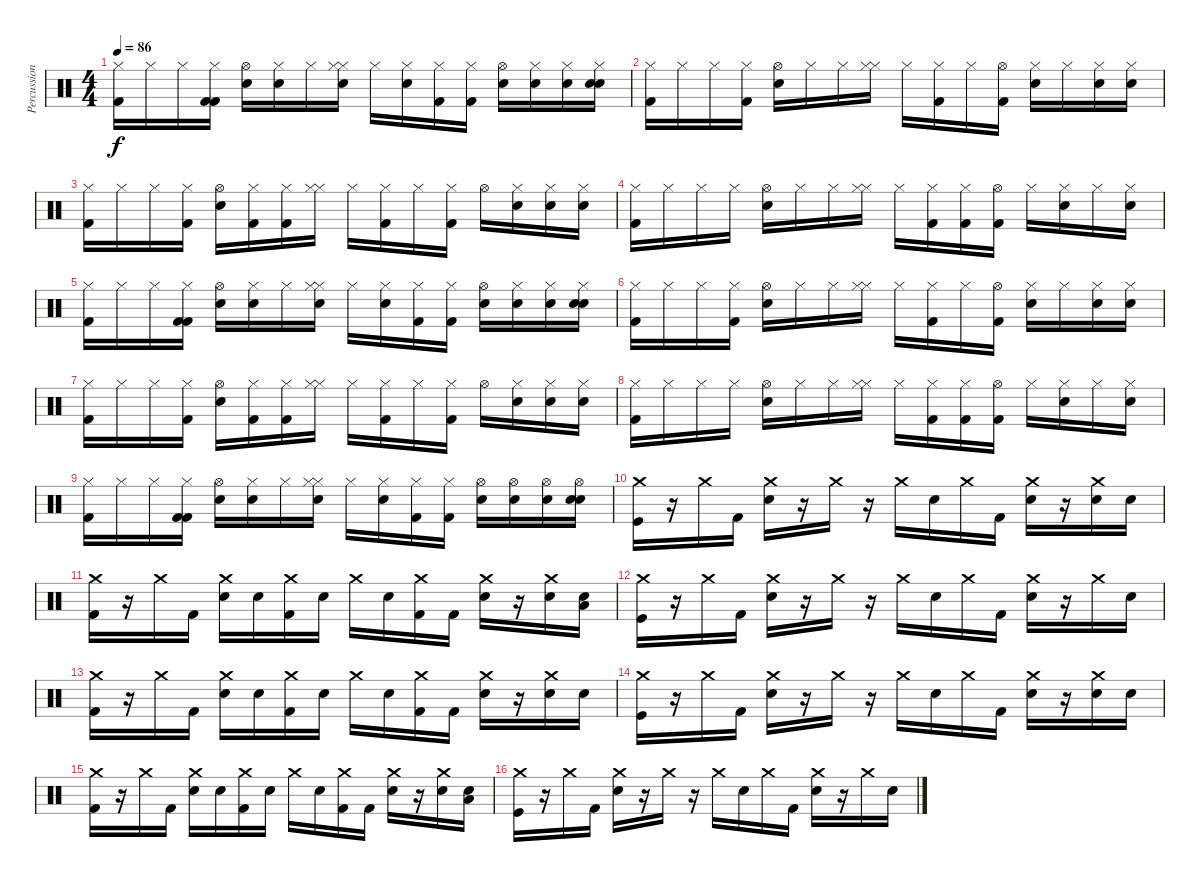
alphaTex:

\track ("Percussion" "Percussion") {instrument percussion}
\staff {score}
\articulation defaults
\ts (4 4)
\tempo 86
\clef neutral
\ks c
("Hi-Hat (closed)" "Kick (hit) 2").16{dy f} "Hi-Hat (closed)".16 "Hi-Hat (closed)".16 ("Hi-Hat (closed)" "Kick (hit) 2" "Kick (hit) 2").16 ("Hi-Hat (open)" "Electric Snare (hit)").16 ("Hi-Hat (closed)" "Electric Snare (hit)").16 "Hi-Hat (closed)".16 ("Hi-Hat (closed)" "Electric Snare (hit)" "Hi-Hat (closed)").16 "Hi-Hat (closed)".16 ("Hi-Hat (closed)" "Electric Snare (hit)").16 ("Hi-Hat (closed)" "Kick (hit) 2").16 ("Hi-Hat (closed)" "Kick (hit) 2").16 ("Hi-Hat (open)" "Electric Snare (hit)").16 ("Hi-Hat (closed)" "Electric Snare (hit)").16 ("Hi-Hat (closed)" "Electric Snare (hit)").16 ("Hi-Hat (closed)" "Electric Snare (hit)" "Electric Snare (hit)").16 |
("Hi-Hat (closed)" "Kick (hit) 2").16 "Hi-Hat (closed)".16 "Hi-Hat (closed)".16 ("Hi-Hat (closed)" "Kick (hit) 2").16 ("Hi-Hat (open)" "Electric Snare (hit)").16 "Hi-Hat (closed)".16 "Hi-Hat (closed)".16 ("Hi-Hat (closed)" "Hi-Hat (closed)").16 "Hi-Hat (closed)".16 ("Hi-Hat (closed)" "Kick (hit) 2").16 "Hi-Hat (closed)".16 ("Hi-Hat (open)" "Kick (hit) 2").16 ("Hi-Hat (closed)" "Electric Snare (hit)").16 "Hi-Hat (closed)".16 ("Hi-Hat (closed)" "Electric Snare (hit)").16 ("Hi-Hat (closed)" "Electric Snare (hit)").16 |
("Hi-Hat (closed)" "Kick (hit) 2").16 "Hi-Hat (closed)".16 "Hi-Hat (closed)".16 ("Hi-Hat (closed)" "Kick (hit) 2").16 ("Hi-Hat (open)" "Electric Snare (hit)").16 ("Hi-Hat (closed)" "Kick (hit) 2").16 ("Hi-Hat (closed)" "Kick (hit) 2").16 ("Hi-Hat (closed)" "Hi-Hat (closed)").16 "Hi-Hat (closed)".16 ("Hi-Hat (closed)" "Kick (hit) 2").16 "Hi-Hat (closed)".16 ("Hi-Hat (closed)" "Kick (hit) 2").16 "Hi-Hat (open)".16 ("Hi-Hat (closed)" "Electric Snare (hit)").16 ("Hi-Hat (closed)" "Electric Snare (hit)").16 ("Hi-Hat (closed)" "Electric Snare (hit)").16 |
("Hi-Hat (closed)" "Kick (hit) 2").16 "Hi-Hat (closed)".16 "Hi-Hat (closed)".16 "Hi-Hat (closed)".16 ("Hi-Hat (open)" "Electric Snare (hit)").16 "Hi-Hat (closed)".16 "Hi-Hat (closed)".16 ("Hi-Hat (closed)" "Hi-Hat (closed)").16 "Hi-Hat (closed)".16 ("Hi-Hat (closed)" "Kick (hit) 2").16 ("Hi-Hat (closed)" "Kick (hit) 2").16 ("Hi-Hat (open)" "Kick (hit) 2").16 "Hi-Hat (closed)".16 ("Hi-Hat (closed)" "Electric Snare (hit)").16 "Hi-Hat (closed)".16 ("Hi-Hat (closed)" "Electric Snare (hit)").16 |
("Hi-Hat (closed)" "Kick (hit) 2").16 "Hi-Hat (closed)".16 "Hi-Hat (closed)".16 ("Hi-Hat (closed)" "Kick (hit) 2" "Kick (hit) 2").16 ("Hi-Hat (open)" "Electric Snare (hit)").16 ("Hi-Hat (closed)" "Electric Snare (hit)").16 "Hi-Hat (closed)".16 ("Hi-Hat (closed)" "Electric Snare (hit)" "Hi-Hat (closed)").16 "Hi-Hat (closed)".16 ("Hi-Hat (closed)" "Electric Snare (hit)").16 ("Hi-Hat (closed)" "Kick (hit) 2").16 ("Hi-Hat (closed)" "Kick (hit) 2").16 ("Hi-Hat (open)" "Electric Snare (hit)").16 ("Hi-Hat (closed)" "Electric Snare (hit)").16 ("Hi-Hat (closed)" "Electric Snare (hit)").16 ("Hi-Hat (closed)" "Electric Snare (hit)" "Electric Snare (hit)").16 |
("Hi-Hat (closed)" "Kick (hit) 2").16 "Hi-Hat (closed)".16 "Hi-Hat (closed)".16 ("Hi-Hat (closed)" "Kick (hit) 2").16 ("Hi-Hat (open)" "Electric Snare (hit)").16 "Hi-Hat (closed)".16 "Hi-Hat (closed)".16 ("Hi-Hat (closed)" "Hi-Hat (closed)").16 "Hi-Hat (closed)".16 ("Hi-Hat (closed)" "Kick (hit) 2").16 "Hi-Hat (closed)".16 ("Hi-Hat (open)" "Kick (hit) 2").16 ("Hi-Hat (closed)" "Electric Snare (hit)").16 "Hi-Hat (closed)".16 ("Hi-Hat (closed)" "Electric Snare (hit)").16 ("Hi-Hat (closed)" "Electric Snare (hit)").16 |
("Hi-Hat (closed)" "Kick (hit) 2").16 "Hi-Hat (closed)".16 "Hi-Hat (closed)".16 ("Hi-Hat (closed)" "Kick (hit) 2").16 ("Hi-Hat (open)" "Electric Snare (hit)").16 ("Hi-Hat (closed)" "Kick (hit) 2").16 ("Hi-Hat (closed)" "Kick (hit) 2").16 ("Hi-Hat (closed)" "Hi-Hat (closed)").16 "Hi-Hat (closed)".16 ("Hi-Hat (closed)" "Kick (hit) 2").16 "Hi-Hat (closed)".16 ("Hi-Hat (closed)" "Kick (hit) 2").16 "Hi-Hat (open)".16 ("Hi-Hat (closed)" "Electric Snare (hit)").16 ("Hi-Hat (closed)" "Electric Snare (hit)").16 ("Hi-Hat (closed)" "Electric Snare (hit)").16 |
("Hi-Hat (closed)" "Kick (hit) 2").16 "Hi-Hat (closed)".16 "Hi-Hat (closed)".16 "Hi-Hat (closed)".16 ("Hi-Hat (open)" "Electric Snare (hit)").16 "Hi-Hat (closed)".16 "Hi-Hat (closed)".16 ("Hi-Hat (closed)" "Hi-Hat (closed)").16 "Hi-Hat (closed)".16 ("Hi-Hat (closed)" "Kick (hit) 2").16 ("Hi-Hat (closed)" "Kick (hit) 2").16 ("Hi-Hat (open)" "Kick (hit) 2").16 "Hi-Hat (closed)".16 ("Hi-Hat (closed)" "Electric Snare (hit)").16 "Hi-Hat (closed)".16 ("Hi-Hat (closed)" "Electric Snare (hit)").16 |
("Hi-Hat (closed)" "Kick (hit) 2").16 "Hi-Hat (closed)".16 "Hi-Hat (closed)".16 ("Hi-Hat (closed)" "Kick (hit) 2" "Kick (hit) 2").16 ("Hi-Hat (open)" "Electric Snare (hit)").16 ("Hi-Hat (closed)" "Electric Snare (hit)").16 "Hi-Hat (closed)".16 ("Hi-Hat (closed)" "Electric Snare (hit)" "Hi-Hat (closed)").16 "Hi-Hat (closed)".16 ("Hi-Hat (closed)" "Electric Snare (hit)").16 ("Hi-Hat (closed)" "Kick (hit) 2").16 ("Hi-Hat (closed)" "Kick (hit) 2").16 ("Hi-Hat (open)" "Electric Snare (hit)").16 ("Hi-Hat (open)" "Electric Snare (hit)").16 ("Hi-Hat (open)" "Electric Snare (hit)").16 ("Hi-Hat (open)" "Electric Snare (hit)" "Electric Snare (hit)").16 |
("Crash medium (hit)" "Kick (hit)").16 r.16 "Crash medium (hit)".16 "Kick (hit) 2".16 ("Crash medium (hit)" "Electric Snare (hit)").16 r.16 "Crash medium (hit)".16 r.16 "Crash medium (hit)".16 "Electric Snare (hit)".16 "Crash medium (hit)".16 "Kick (hit) 2".16 ("Crash medium (hit)" "Electric Snare (hit)").16 r.16 ("Crash medium (hit)" "Electric Snare (hit)").16 "Electric Snare (hit)".16 |
("Crash medium (hit)" "Kick (hit) 2").16 r.16 "Crash medium (hit)".16 "Kick (hit) 2".16 ("Crash medium (hit)" "Electric Snare (hit)").16 "Electric Snare (hit)".16 ("Crash medium (hit)" "Kick (hit) 2").16 "Electric Snare (hit)".16 "Crash medium (hit)".16 "Electric Snare (hit)".16 ("Crash medium (hit)" "Kick (hit) 2").16 "Kick (hit) 2".16 ("Crash medium (hit)" "Electric Snare (hit)").16 r.16 ("Crash medium (hit)" "Electric Snare (hit)").16 ("Electric Snare (hit)" "Low Floor Tom (hit)").16 |
("Crash medium (hit)" "Kick (hit)").16 r.16 "Crash medium (hit)".16 "Kick (hit) 2".16 ("Crash medium (hit)" "Electric Snare (hit)").16 r.16 "Crash medium (hit)".16 r.16 "Crash medium (hit)".16 "Electric Snare (hit)".16 "Crash medium (hit)".16 "Kick (hit) 2".16 ("Crash medium (hit)" "Electric Snare (hit)").16 r.16 "Crash medium (hit)".16 "Electric Snare (hit)".16 |
("Crash medium (hit)" "Kick (hit) 2").16 r.16 "Crash medium (hit)".16 "Kick (hit) 2".16 ("Crash medium (hit)" "Electric Snare (hit)").16 "Electric Snare (hit)".16 ("Crash medium (hit)" "Kick (hit) 2").16 "Electric Snare (hit)".16 "Crash medium (hit)".16 "Electric Snare (hit)".16 ("Crash medium (hit)" "Kick (hit) 2").16 "Kick (hit) 2".16 ("Crash medium (hit)" "Electric Snare (hit)").16 r.16 ("Crash medium (hit)" "Electric Snare (hit)").16 "Electric Snare (hit)".16 |
("Crash medium (hit)" "Kick (hit)").16 r.16 "Crash medium (hit)".16 "Kick (hit) 2".16 ("Crash medium (hit)" "Electric Snare (hit)").16 r.16 "Crash medium (hit)".16 r.16 "Crash medium (hit)".16 "Electric Snare (hit)".16 "Crash medium (hit)".16 "Kick (hit) 2".16 ("Crash medium (hit)" "Electric Snare (hit)").16 r.16 ("Crash medium (hit)" "Electric Snare (hit)").16 "Electric Snare (hit)".16 |
("Crash medium (hit)" "Kick (hit) 2").16 r.16 "Crash medium (hit)".16 "Kick (hit) 2".16 ("Crash medium (hit)" "Electric Snare (hit)").16 "Electric Snare (hit)".16 ("Crash medium (hit)" "Kick (hit) 2").16 "Electric Snare (hit)".16 "Crash medium (hit)".16 "Electric Snare (hit)".16 ("Crash medium (hit)" "Kick (hit) 2").16 "Kick (hit) 2".16 ("Crash medium (hit)" "Electric Snare (hit)").16 r.16 ("Crash medium (hit)" "Electric Snare (hit)").16 ("Electric Snare (hit)" "Low Floor Tom (hit)").16 |
("Crash medium (hit)" "Kick (hit)").16 r.16 "Crash medium (hit)".16 "Kick (hit) 2".16 ("Crash medium (hit)" "Electric Snare (hit)").16 r.16 "Crash medium (hit)".16 r.16 "Crash medium (hit)".16 "Electric Snare (hit)".16 "Crash medium (hit)".16 "Kick (hit) 2".16 ("Crash medium (hit)" "Electric Snare (hit)").16 r.16 "Crash medium (hit)".16 "Electric Snare (hit)".16
